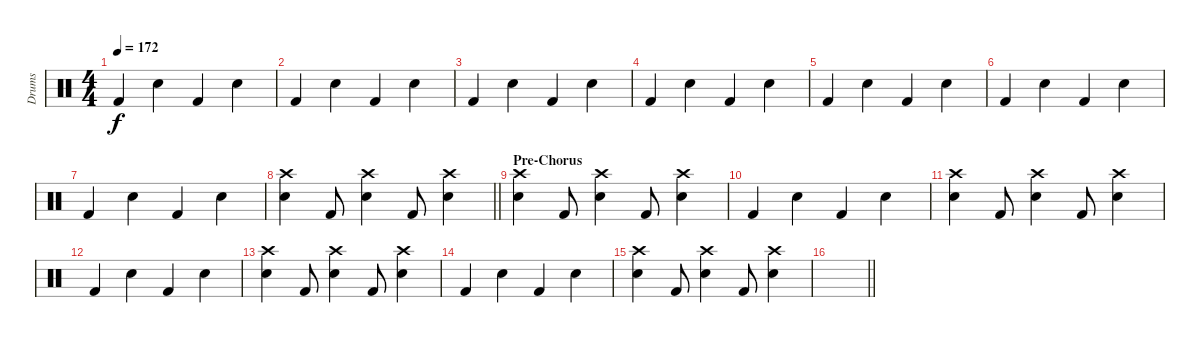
\track ("Drums" "Drums") {instrument percussion}
\staff {score}
\articulation defaults
\ts (4 4)
\tempo 172
\clef neutral
\ks c "Kick (hit) 2".4{dy f} "Snare (hit) 2".4 "Kick (hit) 2".4 "Snare (hit) 2".4
|
"Kick (hit) 2".4 "Snare (hit) 2".4 "Kick (hit) 2".4 "Snare (hit) 2".4 |
"Kick (hit) 2".4 "Snare (hit) 2".4 "Kick (hit) 2".4 "Snare (hit) 2".4 |
"Kick (hit) 2".4 "Snare (hit) 2".4 "Kick (hit) 2".4 "Snare (hit) 2".4 |
"Kick (hit) 2".4 "Snare (hit) 2".4 "Kick (hit) 2".4 "Snare (hit) 2".4 |
"Kick (hit) 2".4 "Snare (hit) 2".4 "Kick (hit) 2".4 "Snare (hit) 2".4 |
"Kick (hit) 2".4 "Snare (hit) 2".4 "Kick (hit) 2".4 "Snare (hit) 2".4 |
\barLineRight lightlight
("Crash high (hit)" "Snare (hit) 2").4 "Kick (hit) 2".8 ("Crash high (hit)" "Snare (hit) 2").4 "Kick (hit) 2".8 ("Crash high (hit)" "Snare (hit) 2").4 |
\section ("" "Pre-Chorus")
("Crash high (hit)" "Snare (hit) 2").4 "Kick (hit) 2".8 ("Crash high (hit)" "Snare (hit) 2").4 "Kick (hit) 2".8 ("Crash high (hit)" "Snare (hit) 2").4 |
"Kick (hit) 2".4 "Snare (hit) 2".4 "Kick (hit) 2".4 "Snare (hit) 2".4 |
("Crash high (hit)" "Snare (hit) 2").4 "Kick (hit) 2".8 ("Crash high (hit)" "Snare (hit) 2").4 "Kick (hit) 2".8 ("Crash high (hit)" "Snare (hit) 2").4 |
"Kick (hit) 2".4 "Snare (hit) 2".4 "Kick (hit) 2".4 "Snare (hit) 2".4 |
("Crash high (hit)" "Snare (hit) 2").4 "Kick (hit) 2".8 ("Crash high (hit)" "Snare (hit) 2").4 "Kick (hit) 2".8 ("Crash high (hit)" "Snare (hit) 2").4 |
"Kick (hit) 2".4 "Snare (hit) 2".4 "Kick (hit) 2".4 "Snare (hit) 2".4 |
("Crash high (hit)" "Snare (hit) 2").4 "Kick (hit) 2".8 ("Crash high (hit)" "Snare (hit) 2").4 "Kick (hit) 2".8 ("Crash high (hit)" "Snare (hit) 2").4 |
\barLineRight lightlight
